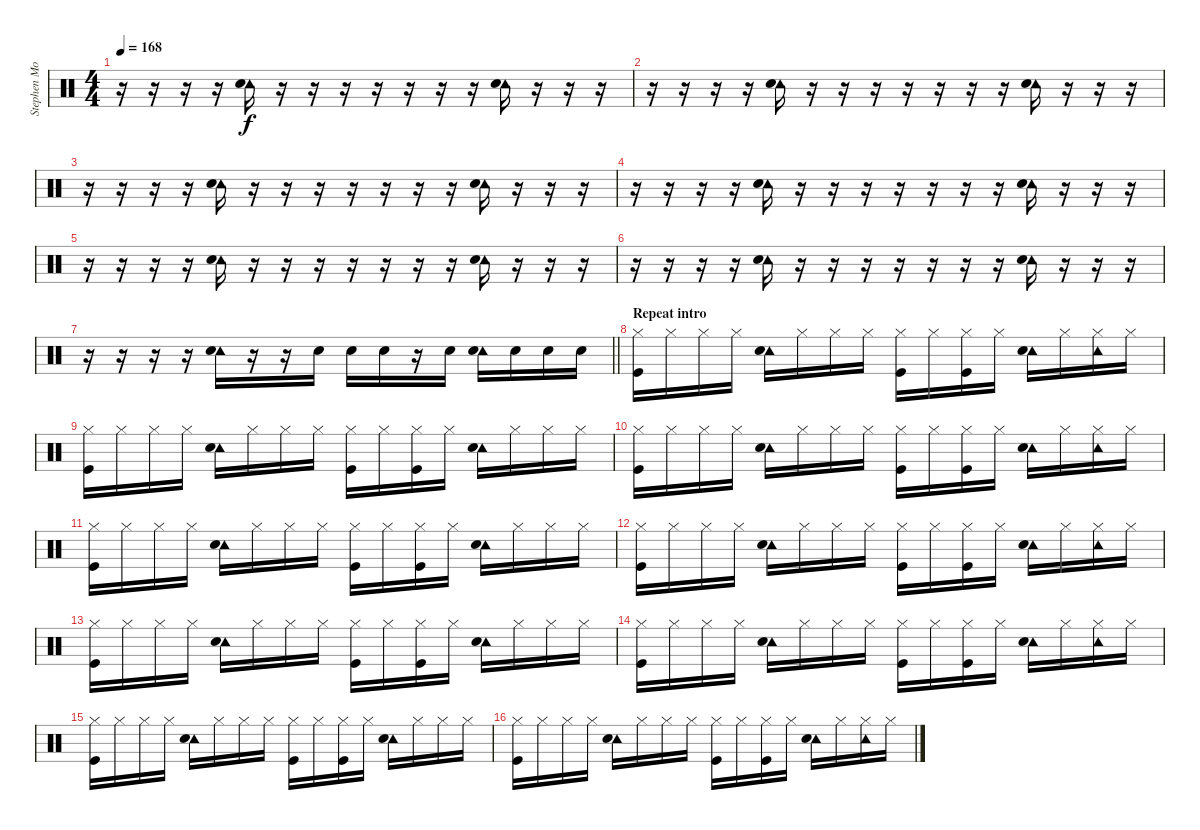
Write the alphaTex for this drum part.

\track ("Stephen Morris - Drums" "Stephen Mo") {instrument percussion}
\staff {score}
\articulation defaults
\ts (4 4)
\tempo 168
\clef neutral
\ks c
r.16{dy f} r.16 r.16 r.16 ("Tambourine (hit)" "Snare (hit) 2").16 r.16 r.16 r.16 r.16 r.16 r.16 r.16 ("Tambourine (hit)" "Snare (hit) 2").16 r.16 r.16 r.16 |
r.16 r.16 r.16 r.16 ("Tambourine (hit)" "Snare (hit) 2").16 r.16 r.16 r.16 r.16 r.16 r.16 r.16 ("Tambourine (hit)" "Snare (hit) 2").16 r.16 r.16 r.16 |
r.16 r.16 r.16 r.16 ("Tambourine (hit)" "Snare (hit) 2").16 r.16 r.16 r.16 r.16 r.16 r.16 r.16 ("Tambourine (hit)" "Snare (hit) 2").16 r.16 r.16 r.16 |
r.16 r.16 r.16 r.16 ("Tambourine (hit)" "Snare (hit) 2").16 r.16 r.16 r.16 r.16 r.16 r.16 r.16 ("Tambourine (hit)" "Snare (hit) 2").16 r.16 r.16 r.16 |
r.16 r.16 r.16 r.16 ("Tambourine (hit)" "Snare (hit) 2").16 r.16 r.16 r.16 r.16 r.16 r.16 r.16 ("Tambourine (hit)" "Snare (hit) 2").16 r.16 r.16 r.16 |
r.16 r.16 r.16 r.16 ("Tambourine (hit)" "Snare (hit) 2").16 r.16 r.16 r.16 r.16 r.16 r.16 r.16 ("Tambourine (hit)" "Snare (hit) 2").16 r.16 r.16 r.16 |
\barLineRight lightlight
r.16 r.16 r.16 r.16 ("Tambourine (hit)" "Snare (hit) 2").16 r.16 r.16 "Snare (hit) 2".16 "Snare (hit) 2".16 "Snare (hit) 2".16 r.16 "Snare (hit) 2".16 ("Tambourine (hit)" "Snare (hit) 2").16 "Snare (hit) 2".16 "Snare (hit) 2".16 "Snare (hit) 2".16 |
\section ("" "Repeat intro")
("Hi-Hat (closed)" "Kick (hit)").16 "Hi-Hat (closed)".16 "Hi-Hat (closed)".16 "Hi-Hat (closed)".16 ("Tambourine (hit)" "Snare (hit) 2").16 "Hi-Hat (closed)".16 "Hi-Hat (closed)".16 "Hi-Hat (closed)".16 ("Hi-Hat (closed)" "Kick (hit)").16 "Hi-Hat (closed)".16 ("Hi-Hat (closed)" "Kick (hit)").16 "Hi-Hat (closed)".16 ("Tambourine (hit)" "Snare (hit) 2").16 "Hi-Hat (closed)".16 ("Tambourine (hit)" "Hi-Hat (closed)").16 "Hi-Hat (closed)".16 |
("Hi-Hat (closed)" "Kick (hit)").16 "Hi-Hat (closed)".16 "Hi-Hat (closed)".16 "Hi-Hat (closed)".16 ("Tambourine (hit)" "Snare (hit) 2").16 "Hi-Hat (closed)".16 "Hi-Hat (closed)".16 "Hi-Hat (closed)".16 ("Hi-Hat (closed)" "Kick (hit)").16 "Hi-Hat (closed)".16 ("Hi-Hat (closed)" "Kick (hit)").16 "Hi-Hat (closed)".16 ("Tambourine (hit)" "Snare (hit) 2").16 "Hi-Hat (closed)".16 "Hi-Hat (closed)".16 "Hi-Hat (closed)".16 |
("Hi-Hat (closed)" "Kick (hit)").16 "Hi-Hat (closed)".16 "Hi-Hat (closed)".16 "Hi-Hat (closed)".16 ("Tambourine (hit)" "Snare (hit) 2").16 "Hi-Hat (closed)".16 "Hi-Hat (closed)".16 "Hi-Hat (closed)".16 ("Hi-Hat (closed)" "Kick (hit)").16 "Hi-Hat (closed)".16 ("Hi-Hat (closed)" "Kick (hit)").16 "Hi-Hat (closed)".16 ("Tambourine (hit)" "Snare (hit) 2").16 "Hi-Hat (closed)".16 ("Tambourine (hit)" "Hi-Hat (closed)").16 "Hi-Hat (closed)".16 |
("Hi-Hat (closed)" "Kick (hit)").16 "Hi-Hat (closed)".16 "Hi-Hat (closed)".16 "Hi-Hat (closed)".16 ("Tambourine (hit)" "Snare (hit) 2").16 "Hi-Hat (closed)".16 "Hi-Hat (closed)".16 "Hi-Hat (closed)".16 ("Hi-Hat (closed)" "Kick (hit)").16 "Hi-Hat (closed)".16 ("Hi-Hat (closed)" "Kick (hit)").16 "Hi-Hat (closed)".16 ("Tambourine (hit)" "Snare (hit) 2").16 "Hi-Hat (closed)".16 "Hi-Hat (closed)".16 "Hi-Hat (closed)".16 |
("Hi-Hat (closed)" "Kick (hit)").16 "Hi-Hat (closed)".16 "Hi-Hat (closed)".16 "Hi-Hat (closed)".16 ("Tambourine (hit)" "Snare (hit) 2").16 "Hi-Hat (closed)".16 "Hi-Hat (closed)".16 "Hi-Hat (closed)".16 ("Hi-Hat (closed)" "Kick (hit)").16 "Hi-Hat (closed)".16 ("Hi-Hat (closed)" "Kick (hit)").16 "Hi-Hat (closed)".16 ("Tambourine (hit)" "Snare (hit) 2").16 "Hi-Hat (closed)".16 ("Tambourine (hit)" "Hi-Hat (closed)").16 "Hi-Hat (closed)".16 |
("Hi-Hat (closed)" "Kick (hit)").16 "Hi-Hat (closed)".16 "Hi-Hat (closed)".16 "Hi-Hat (closed)".16 ("Tambourine (hit)" "Snare (hit) 2").16 "Hi-Hat (closed)".16 "Hi-Hat (closed)".16 "Hi-Hat (closed)".16 ("Hi-Hat (closed)" "Kick (hit)").16 "Hi-Hat (closed)".16 ("Hi-Hat (closed)" "Kick (hit)").16 "Hi-Hat (closed)".16 ("Tambourine (hit)" "Snare (hit) 2").16 "Hi-Hat (closed)".16 "Hi-Hat (closed)".16 "Hi-Hat (closed)".16 |
("Hi-Hat (closed)" "Kick (hit)").16 "Hi-Hat (closed)".16 "Hi-Hat (closed)".16 "Hi-Hat (closed)".16 ("Tambourine (hit)" "Snare (hit) 2").16 "Hi-Hat (closed)".16 "Hi-Hat (closed)".16 "Hi-Hat (closed)".16 ("Hi-Hat (closed)" "Kick (hit)").16 "Hi-Hat (closed)".16 ("Hi-Hat (closed)" "Kick (hit)").16 "Hi-Hat (closed)".16 ("Tambourine (hit)" "Snare (hit) 2").16 "Hi-Hat (closed)".16 ("Tambourine (hit)" "Hi-Hat (closed)").16 "Hi-Hat (closed)".16 |
("Hi-Hat (closed)" "Kick (hit)").16 "Hi-Hat (closed)".16 "Hi-Hat (closed)".16 "Hi-Hat (closed)".16 ("Tambourine (hit)" "Snare (hit) 2").16 "Hi-Hat (closed)".16 "Hi-Hat (closed)".16 "Hi-Hat (closed)".16 ("Hi-Hat (closed)" "Kick (hit)").16 "Hi-Hat (closed)".16 ("Hi-Hat (closed)" "Kick (hit)").16 "Hi-Hat (closed)".16 ("Tambourine (hit)" "Snare (hit) 2").16 "Hi-Hat (closed)".16 "Hi-Hat (closed)".16 "Hi-Hat (closed)".16 |
("Hi-Hat (closed)" "Kick (hit)").16 "Hi-Hat (closed)".16 "Hi-Hat (closed)".16 "Hi-Hat (closed)".16 ("Tambourine (hit)" "Snare (hit) 2").16 "Hi-Hat (closed)".16 "Hi-Hat (closed)".16 "Hi-Hat (closed)".16 ("Hi-Hat (closed)" "Kick (hit)").16 "Hi-Hat (closed)".16 ("Hi-Hat (closed)" "Kick (hit)").16 "Hi-Hat (closed)".16 ("Tambourine (hit)" "Snare (hit) 2").16 "Hi-Hat (closed)".16 ("Tambourine (hit)" "Hi-Hat (closed)").16 "Hi-Hat (closed)".16
